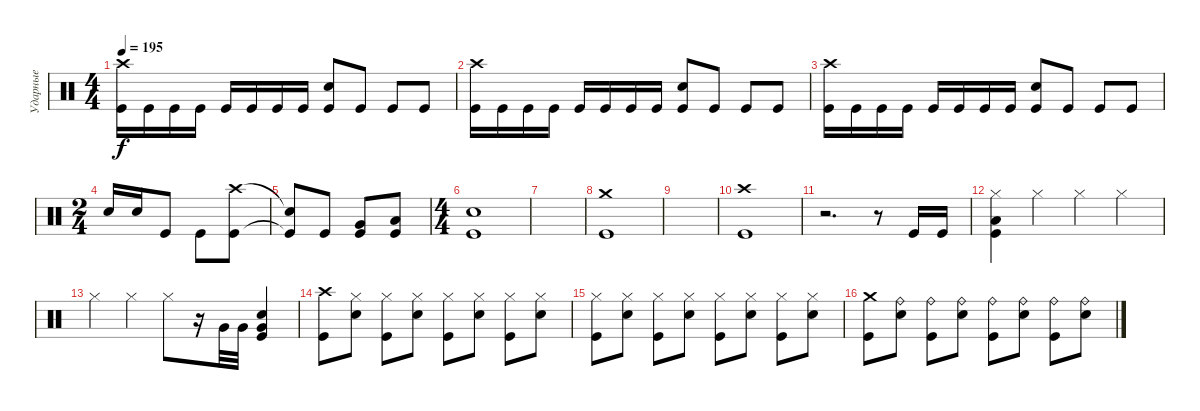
\track ("Ударные" "Ударные") {instrument percussion}
\staff {score}
\articulation defaults
\ts (4 4)
\tempo 195
\clef neutral
\ks c
("Crash high (hit)" "Kick (hit)").16{dy f} "Kick (hit)".16 "Kick (hit)".16 "Kick (hit)".16 "Kick (hit)".16 "Kick (hit)".16 "Kick (hit)".16 "Kick (hit)".16 ("Electric Snare (hit)" "Kick (hit)").8 "Kick (hit)".8 "Kick (hit)".8 "Kick (hit)".8 |
("Crash high (hit)" "Kick (hit)").16 "Kick (hit)".16 "Kick (hit)".16 "Kick (hit)".16 "Kick (hit)".16 "Kick (hit)".16 "Kick (hit)".16 "Kick (hit)".16 ("Electric Snare (hit)" "Kick (hit)").8 "Kick (hit)".8 "Kick (hit)".8 "Kick (hit)".8 |
("Crash high (hit)" "Kick (hit)").16 "Kick (hit)".16 "Kick (hit)".16 "Kick (hit)".16 "Kick (hit)".16 "Kick (hit)".16 "Kick (hit)".16 "Kick (hit)".16 ("Electric Snare (hit)" "Kick (hit)").8 "Kick (hit)".8 "Kick (hit)".8 "Kick (hit)".8 |
\ts (2 4)
"Electric Snare (hit)".16 "Electric Snare (hit)".16 "Kick (hit)".8 "Kick (hit)".8 ("Crash high (hit)" "Kick (hit)").8 |
("Snare (hit)"{t} "Kick (hit)"{t}).8 "Kick (hit)".8 ("Very Low Tom (hit)" "Kick (hit)").8 ("Low Tom (hit)" "Kick (hit)").8 |
\ts (4 4)
("Electric Snare (hit)" "Kick (hit)").1 |
|
("Crash medium (hit)" "Kick (hit)").1 |
|
("Crash high (hit)" "Kick (hit)").1 |
r.2{d} r.8 "Kick (hit)".16 "Kick (hit)".16 |
("Hi-Hat (closed)" "Low Tom (hit)" "Kick (hit)").4 "Hi-Hat (closed)".4 "Hi-Hat (closed)".4 "Hi-Hat (closed)".4 |
"Hi-Hat (closed)".4 "Hi-Hat (closed)".4 "Hi-Hat (closed)".8 r.16 "Very Low Tom (hit)".32 "Very Low Tom (hit)".32 ("Electric Snare (hit)" "Very Low Tom (hit)" "Kick (hit)").4 |
("Crash high (hit)" "Kick (hit)").8 ("Hi-Hat (closed)" "Electric Snare (hit)").8 ("Hi-Hat (closed)" "Kick (hit)").8 ("Hi-Hat (closed)" "Electric Snare (hit)").8 ("Hi-Hat (closed)" "Kick (hit)").8 ("Hi-Hat (closed)" "Electric Snare (hit)").8 ("Hi-Hat (closed)" "Kick (hit)").8 ("Hi-Hat (closed)" "Electric Snare (hit)").8 |
("Hi-Hat (closed)" "Kick (hit)").8 ("Hi-Hat (closed)" "Electric Snare (hit)").8 ("Hi-Hat (closed)" "Kick (hit)").8 ("Hi-Hat (closed)" "Electric Snare (hit)").8 ("Hi-Hat (closed)" "Kick (hit)").8 ("Hi-Hat (closed)" "Electric Snare (hit)").8 ("Hi-Hat (closed)" "Kick (hit)").8 ("Hi-Hat (closed)" "Electric Snare (hit)").8 |
("Crash medium (hit)" "Kick (hit)").8 ("Ride (bell)" "Electric Snare (hit)").8 ("Ride (bell)" "Kick (hit)").8 ("Ride (bell)" "Electric Snare (hit)").8 ("Ride (bell)" "Kick (hit)").8 ("Ride (bell)" "Electric Snare (hit)").8 ("Ride (bell)" "Kick (hit)").8 ("Ride (bell)" "Electric Snare (hit)").8
